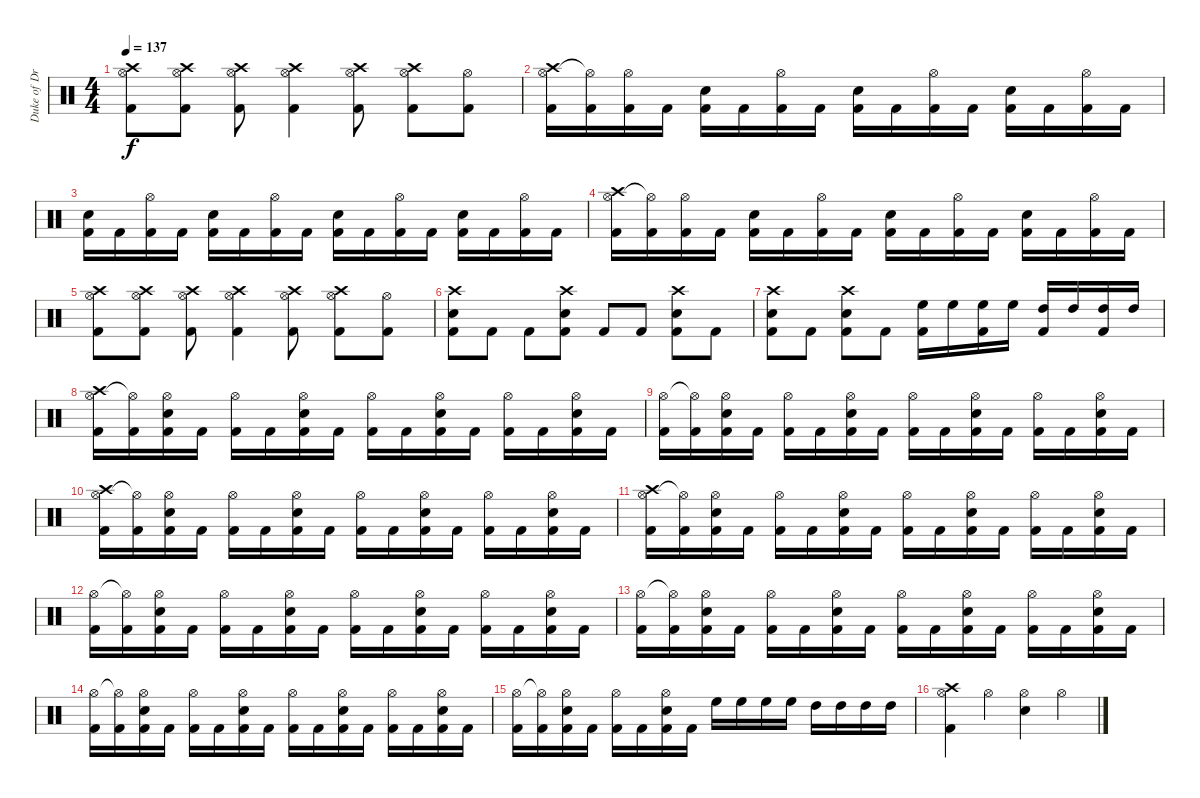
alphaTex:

\track ("Duke of Drumington" "Duke of Dr") {instrument percussion}
\staff {score}
\articulation defaults
\ts (4 4)
\tempo 137
\clef neutral
\ks c
("Hi-Hat (open)" "Crash high (hit)" "Kick (hit) 2").8{dy f} ("Hi-Hat (open)" "Crash high (hit)" "Kick (hit) 2").8 ("Hi-Hat (open)" "Crash high (hit)" "Kick (hit) 2").8 ("Hi-Hat (open)" "Crash high (hit)" "Kick (hit) 2").4 ("Hi-Hat (open)" "Crash high (hit)" "Kick (hit) 2").8 ("Hi-Hat (open)" "Crash high (hit)" "Kick (hit) 2").8 ("Hi-Hat (open)" "Kick (hit) 2").8 |
("Hi-Hat (open)" "Crash high (hit)" "Kick (hit) 2").16 ("Hi-Hat (open)"{t} "Kick (hit) 2").16 ("Hi-Hat (open)" "Kick (hit) 2").16 "Kick (hit) 2".16 ("Snare (hit) 2" "Kick (hit) 2").16 "Kick (hit) 2".16 ("Hi-Hat (open)" "Kick (hit) 2").16 "Kick (hit) 2".16 ("Snare (hit) 2" "Kick (hit) 2").16 "Kick (hit) 2".16 ("Hi-Hat (open)" "Kick (hit) 2").16 "Kick (hit) 2".16 ("Snare (hit) 2" "Kick (hit) 2").16 "Kick (hit) 2".16 ("Hi-Hat (open)" "Kick (hit) 2").16 "Kick (hit) 2".16 |
("Snare (hit) 2" "Kick (hit) 2").16 "Kick (hit) 2".16 ("Hi-Hat (open)" "Kick (hit) 2").16 "Kick (hit) 2".16 ("Snare (hit) 2" "Kick (hit) 2").16 "Kick (hit) 2".16 ("Hi-Hat (open)" "Kick (hit) 2").16 "Kick (hit) 2".16 ("Snare (hit) 2" "Kick (hit) 2").16 "Kick (hit) 2".16 ("Hi-Hat (open)" "Kick (hit) 2").16 "Kick (hit) 2".16 ("Snare (hit) 2" "Kick (hit) 2").16 "Kick (hit) 2".16 ("Hi-Hat (open)" "Kick (hit) 2").16 "Kick (hit) 2".16 |
("Hi-Hat (open)" "Crash high (hit)" "Kick (hit) 2").16 ("Hi-Hat (open)"{t} "Kick (hit) 2").16 ("Hi-Hat (open)" "Kick (hit) 2").16 "Kick (hit) 2".16 ("Snare (hit) 2" "Kick (hit) 2").16 "Kick (hit) 2".16 ("Hi-Hat (open)" "Kick (hit) 2").16 "Kick (hit) 2".16 ("Snare (hit) 2" "Kick (hit) 2").16 "Kick (hit) 2".16 ("Hi-Hat (open)" "Kick (hit) 2").16 "Kick (hit) 2".16 ("Snare (hit) 2" "Kick (hit) 2").16 "Kick (hit) 2".16 ("Hi-Hat (open)" "Kick (hit) 2").16 "Kick (hit) 2".16 |
("Hi-Hat (open)" "Crash high (hit)" "Kick (hit) 2").8 ("Hi-Hat (open)" "Crash high (hit)" "Kick (hit) 2").8 ("Hi-Hat (open)" "Crash high (hit)" "Kick (hit) 2").8 ("Hi-Hat (open)" "Crash high (hit)" "Kick (hit) 2").4 ("Hi-Hat (open)" "Crash high (hit)" "Kick (hit) 2").8 ("Hi-Hat (open)" "Crash high (hit)" "Kick (hit) 2").8 ("Hi-Hat (open)" "Kick (hit) 2").8 |
("Crash high (hit)" "Snare (hit) 2" "Kick (hit) 2").8 "Kick (hit) 2".8 "Kick (hit) 2".8 ("Crash high (hit)" "Snare (hit) 2" "Kick (hit) 2").8 "Kick (hit) 2".8 "Kick (hit) 2".8 ("Crash high (hit)" "Snare (hit) 2" "Kick (hit) 2").8 "Kick (hit) 2".8 |
("Crash high (hit)" "Snare (hit) 2" "Kick (hit) 2").8 "Kick (hit) 2".8 ("Crash high (hit)" "Snare (hit) 2" "Kick (hit) 2").8 "Kick (hit) 2".8 ("High Floor Tom (hit)" "Kick (hit) 2").16 "High Floor Tom (hit)".16 ("High Floor Tom (hit)" "Kick (hit) 2").16 "High Floor Tom (hit)".16 ("High Tom (hit)" "Kick (hit) 2").16 "High Tom (hit)".16 ("High Tom (hit)" "Kick (hit) 2").16 "High Tom (hit)".16 |
("Hi-Hat (open)" "Crash high (hit)" "Kick (hit) 2").16 ("Hi-Hat (open)"{t} "Kick (hit) 2").16 ("Hi-Hat (open)" "Snare (hit) 2" "Kick (hit) 2").16 "Kick (hit) 2".16 ("Hi-Hat (open)" "Kick (hit) 2").16 "Kick (hit) 2".16 ("Hi-Hat (open)" "Snare (hit) 2" "Kick (hit) 2").16 "Kick (hit) 2".16 ("Hi-Hat (open)" "Kick (hit) 2").16 "Kick (hit) 2".16 ("Hi-Hat (open)" "Snare (hit) 2" "Kick (hit) 2").16 "Kick (hit) 2".16 ("Hi-Hat (open)" "Kick (hit) 2").16 "Kick (hit) 2".16 ("Hi-Hat (open)" "Snare (hit) 2" "Kick (hit) 2").16 "Kick (hit) 2".16 |
("Hi-Hat (open)" "Kick (hit) 2").16 ("Hi-Hat (open)"{t} "Kick (hit) 2").16 ("Hi-Hat (open)" "Snare (hit) 2" "Kick (hit) 2").16 "Kick (hit) 2".16 ("Hi-Hat (open)" "Kick (hit) 2").16 "Kick (hit) 2".16 ("Hi-Hat (open)" "Snare (hit) 2" "Kick (hit) 2").16 "Kick (hit) 2".16 ("Hi-Hat (open)" "Kick (hit) 2").16 "Kick (hit) 2".16 ("Hi-Hat (open)" "Snare (hit) 2" "Kick (hit) 2").16 "Kick (hit) 2".16 ("Hi-Hat (open)" "Kick (hit) 2").16 "Kick (hit) 2".16 ("Hi-Hat (open)" "Snare (hit) 2" "Kick (hit) 2").16 "Kick (hit) 2".16 |
("Hi-Hat (open)" "Crash high (hit)" "Kick (hit) 2").16 ("Hi-Hat (open)"{t} "Kick (hit) 2").16 ("Hi-Hat (open)" "Snare (hit) 2" "Kick (hit) 2").16 "Kick (hit) 2".16 ("Hi-Hat (open)" "Kick (hit) 2").16 "Kick (hit) 2".16 ("Hi-Hat (open)" "Snare (hit) 2" "Kick (hit) 2").16 "Kick (hit) 2".16 ("Hi-Hat (open)" "Kick (hit) 2").16 "Kick (hit) 2".16 ("Hi-Hat (open)" "Snare (hit) 2" "Kick (hit) 2").16 "Kick (hit) 2".16 ("Hi-Hat (open)" "Kick (hit) 2").16 "Kick (hit) 2".16 ("Hi-Hat (open)" "Snare (hit) 2" "Kick (hit) 2").16 "Kick (hit) 2".16 |
("Hi-Hat (open)" "Crash high (hit)" "Kick (hit) 2").16 ("Hi-Hat (open)"{t} "Kick (hit) 2").16 ("Hi-Hat (open)" "Snare (hit) 2" "Kick (hit) 2").16 "Kick (hit) 2".16 ("Hi-Hat (open)" "Kick (hit) 2").16 "Kick (hit) 2".16 ("Hi-Hat (open)" "Snare (hit) 2" "Kick (hit) 2").16 "Kick (hit) 2".16 ("Hi-Hat (open)" "Kick (hit) 2").16 "Kick (hit) 2".16 ("Hi-Hat (open)" "Snare (hit) 2" "Kick (hit) 2").16 "Kick (hit) 2".16 ("Hi-Hat (open)" "Kick (hit) 2").16 "Kick (hit) 2".16 ("Hi-Hat (open)" "Snare (hit) 2" "Kick (hit) 2").16 "Kick (hit) 2".16 |
("Hi-Hat (open)" "Kick (hit) 2").16 ("Hi-Hat (open)"{t} "Kick (hit) 2").16 ("Hi-Hat (open)" "Snare (hit) 2" "Kick (hit) 2").16 "Kick (hit) 2".16 ("Hi-Hat (open)" "Kick (hit) 2").16 "Kick (hit) 2".16 ("Hi-Hat (open)" "Snare (hit) 2" "Kick (hit) 2").16 "Kick (hit) 2".16 ("Hi-Hat (open)" "Kick (hit) 2").16 "Kick (hit) 2".16 ("Hi-Hat (open)" "Snare (hit) 2" "Kick (hit) 2").16 "Kick (hit) 2".16 ("Hi-Hat (open)" "Kick (hit) 2").16 "Kick (hit) 2".16 ("Hi-Hat (open)" "Snare (hit) 2" "Kick (hit) 2").16 "Kick (hit) 2".16 |
("Hi-Hat (open)" "Kick (hit) 2").16 ("Hi-Hat (open)"{t} "Kick (hit) 2").16 ("Hi-Hat (open)" "Snare (hit) 2" "Kick (hit) 2").16 "Kick (hit) 2".16 ("Hi-Hat (open)" "Kick (hit) 2").16 "Kick (hit) 2".16 ("Hi-Hat (open)" "Snare (hit) 2" "Kick (hit) 2").16 "Kick (hit) 2".16 ("Hi-Hat (open)" "Kick (hit) 2").16 "Kick (hit) 2".16 ("Hi-Hat (open)" "Snare (hit) 2" "Kick (hit) 2").16 "Kick (hit) 2".16 ("Hi-Hat (open)" "Kick (hit) 2").16 "Kick (hit) 2".16 ("Hi-Hat (open)" "Snare (hit) 2" "Kick (hit) 2").16 "Kick (hit) 2".16 |
("Hi-Hat (open)" "Kick (hit) 2").16 ("Hi-Hat (open)"{t} "Kick (hit) 2").16 ("Hi-Hat (open)" "Snare (hit) 2" "Kick (hit) 2").16 "Kick (hit) 2".16 ("Hi-Hat (open)" "Kick (hit) 2").16 "Kick (hit) 2".16 ("Hi-Hat (open)" "Snare (hit) 2" "Kick (hit) 2").16 "Kick (hit) 2".16 ("Hi-Hat (open)" "Kick (hit) 2").16 "Kick (hit) 2".16 ("Hi-Hat (open)" "Snare (hit) 2" "Kick (hit) 2").16 "Kick (hit) 2".16 ("Hi-Hat (open)" "Kick (hit) 2").16 "Kick (hit) 2".16 ("Hi-Hat (open)" "Snare (hit) 2" "Kick (hit) 2").16 "Kick (hit) 2".16 |
("Hi-Hat (open)" "Kick (hit) 2").16 ("Hi-Hat (open)"{t} "Kick (hit) 2").16 ("Hi-Hat (open)" "Snare (hit) 2" "Kick (hit) 2").16 "Kick (hit) 2".16 ("Hi-Hat (open)" "Kick (hit) 2").16 "Kick (hit) 2".16 ("Hi-Hat (open)" "Snare (hit) 2" "Kick (hit) 2").16 "Kick (hit) 2".16 "High Floor Tom (hit)".16 "High Floor Tom (hit)".16 "High Floor Tom (hit)".16 "High Floor Tom (hit)".16 "High Tom (hit)".16 "High Tom (hit)".16 "High Tom (hit)".16 "High Tom (hit)".16 |
("Crash high (hit)" "Hi-Hat (open)" "Kick (hit) 2").4 "Hi-Hat (open)".4 ("Hi-Hat (open)" "Snare (hit) 2").4 "Hi-Hat (open)".4
